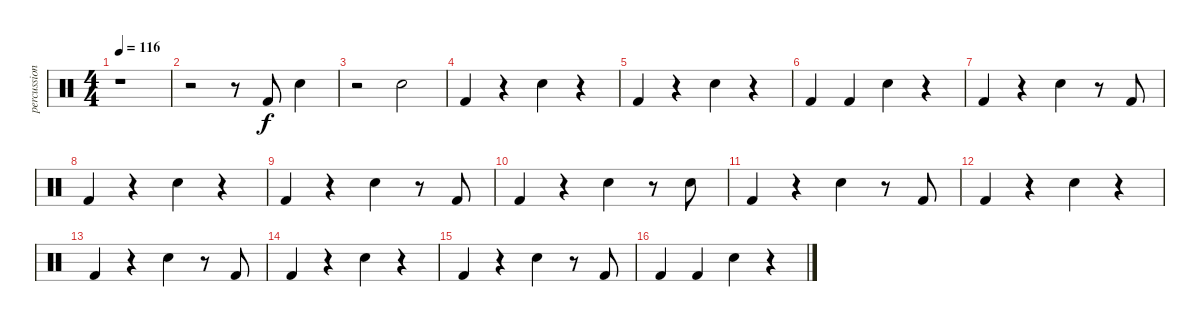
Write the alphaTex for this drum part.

\track ("percussion" "percussion") {instrument percussion}
\staff {score}
\articulation defaults
\ts (4 4)
\tempo 116
\clef neutral
\ks c
r.1{dy f} |
r.2 r.8 "Kick (hit) 2".8 "Snare (hit) 2".4 |
r.2 "Snare (hit) 2".2 |
"Kick (hit) 2".4 r.4 "Snare (hit) 2".4 r.4 |
"Kick (hit) 2".4 r.4 "Snare (hit) 2".4 r.4 |
"Kick (hit) 2".4 "Kick (hit) 2".4 "Snare (hit) 2".4 r.4 |
"Kick (hit) 2".4 r.4 "Snare (hit) 2".4 r.8 "Kick (hit) 2".8 |
"Kick (hit) 2".4 r.4 "Snare (hit) 2".4 r.4 |
"Kick (hit) 2".4 r.4 "Snare (hit) 2".4 r.8 "Kick (hit) 2".8 |
"Kick (hit) 2".4 r.4 "Snare (hit) 2".4 r.8 "Snare (hit) 2".8 |
"Kick (hit) 2".4 r.4 "Snare (hit) 2".4 r.8 "Kick (hit) 2".8 |
"Kick (hit) 2".4 r.4 "Snare (hit) 2".4 r.4 |
"Kick (hit) 2".4 r.4 "Snare (hit) 2".4 r.8 "Kick (hit) 2".8 |
"Kick (hit) 2".4 r.4 "Snare (hit) 2".4 r.4 |
"Kick (hit) 2".4 r.4 "Snare (hit) 2".4 r.8 "Kick (hit) 2".8 |
"Kick (hit) 2".4 "Kick (hit) 2".4 "Snare (hit) 2".4 r.4
